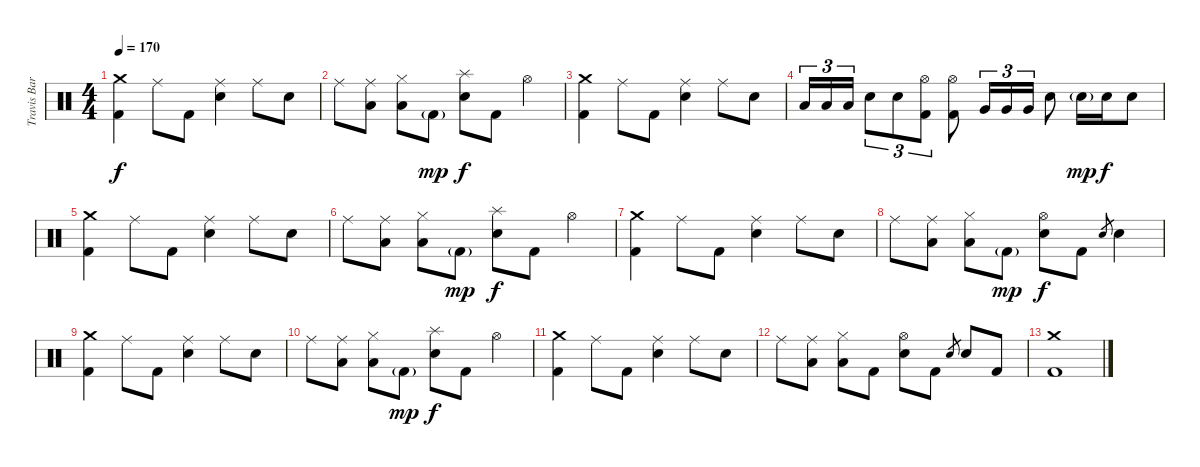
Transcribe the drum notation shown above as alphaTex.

\track ("Travis Barker - Drums" "Travis Bar") {instrument percussion}
\staff {score}
\articulation defaults
\ts (4 4)
\tempo 170
\clef neutral
\ks c
("Crash medium (hit)" "Kick (hit) 2").4{dy f} "Ride (middle)".8 "Kick (hit) 2".8 ("Ride (middle)" "Electric Snare (hit)").4 "Ride (middle)".8 "Electric Snare (hit)".8 |
"Ride (middle)".8 ("Ride (middle)" "Low Tom (hit)").8 ("Hi-Hat (closed)" "Low Tom (hit)").8 "Kick (hit) 2"{g}.8{dy mp} ("Splash (hit)" "Electric Snare (hit)").8{dy f} "Kick (hit) 2".8 "Hi-Hat (open)".4 |
("Crash medium (hit)" "Kick (hit) 2").4 "Ride (middle)".8 "Kick (hit) 2".8 ("Ride (middle)" "Electric Snare (hit)").4 "Ride (middle)".8 "Electric Snare (hit)".8 |
"Low Tom (hit)".16{tu (3 2)} "Low Tom (hit)".16{tu (3 2)} "Low Tom (hit)".16{tu (3 2)} "Electric Snare (hit)".8{tu (3 2)} "Electric Snare (hit)".8{tu (3 2)} ("Hi-Hat (open)" "Kick (hit) 2").8{tu (3 2)} ("Hi-Hat (open)" "Kick (hit) 2").8 "Very Low Tom (hit)".16{tu (3 2)} "Very Low Tom (hit)".16{tu (3 2)} "Very Low Tom (hit)".16{tu (3 2)} "Electric Snare (hit)".8 "Electric Snare (hit)"{g}.16{dy mp} "Electric Snare (hit)".16{dy f} "Electric Snare (hit)".8 |
("Crash medium (hit)" "Kick (hit) 2").4 "Ride (middle)".8 "Kick (hit) 2".8 ("Ride (middle)" "Electric Snare (hit)").4 "Ride (middle)".8 "Electric Snare (hit)".8 |
"Ride (middle)".8 ("Ride (middle)" "Low Tom (hit)").8 ("Hi-Hat (closed)" "Low Tom (hit)").8 "Kick (hit) 2"{g}.8{dy mp} ("Splash (hit)" "Electric Snare (hit)").8{dy f} "Kick (hit) 2".8 "Hi-Hat (open)".4 |
("Crash medium (hit)" "Kick (hit) 2").4 "Ride (middle)".8 "Kick (hit) 2".8 ("Ride (middle)" "Electric Snare (hit)").4 "Ride (middle)".8 "Electric Snare (hit)".8 |
"Ride (middle)".8 ("Ride (middle)" "Low Tom (hit)").8 ("Hi-Hat (closed)" "Low Tom (hit)").8 "Kick (hit) 2"{g}.8{dy mp} ("Hi-Hat (open)" "Electric Snare (hit)").8{dy f} "Kick (hit) 2".8 "Electric Snare (hit)".8{gr} "Electric Snare (hit)".4 |
("Crash medium (hit)" "Kick (hit) 2").4 "Ride (middle)".8 "Kick (hit) 2".8 ("Ride (middle)" "Electric Snare (hit)").4 "Ride (middle)".8 "Electric Snare (hit)".8 |
"Ride (middle)".8 ("Ride (middle)" "Low Tom (hit)").8 ("Hi-Hat (closed)" "Low Tom (hit)").8 "Kick (hit) 2"{g}.8{dy mp} ("Splash (hit)" "Electric Snare (hit)").8{dy f} "Kick (hit) 2".8 "Hi-Hat (open)".4 |
("Crash medium (hit)" "Kick (hit) 2").4 "Ride (middle)".8 "Kick (hit) 2".8 ("Ride (middle)" "Electric Snare (hit)").4 "Ride (middle)".8 "Electric Snare (hit)".8 |
"Ride (middle)".8 ("Ride (middle)" "Low Tom (hit)").8 ("Hi-Hat (closed)" "Low Tom (hit)").8 "Kick (hit) 2".8 ("Hi-Hat (open)" "Electric Snare (hit)").8 "Kick (hit) 2".8 "Electric Snare (hit)".8{gr} "Electric Snare (hit)".8 "Kick (hit) 2".8 |
("Crash medium (hit)" "Kick (hit) 2").1
